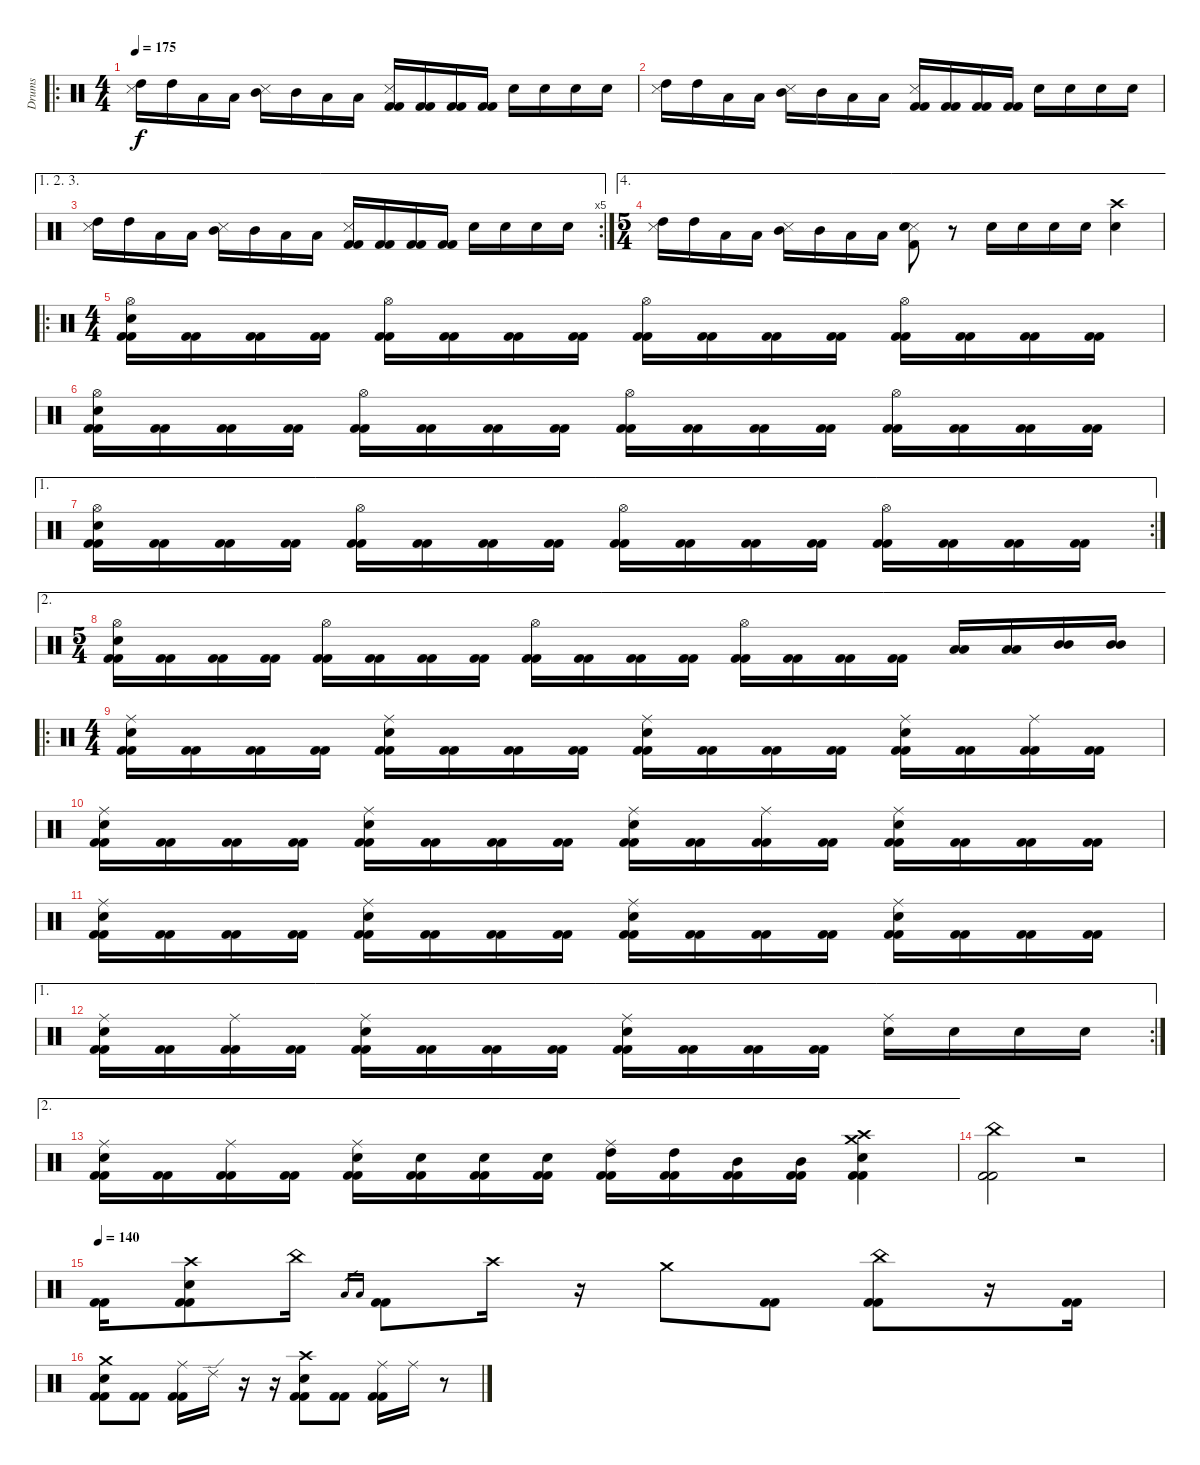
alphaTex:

\track ("Drums " "Drums ") {instrument percussion}
\staff {score}
\articulation defaults
\ro
\ts (4 4)
\tempo 175
\clef neutral
\ks c
("Metronome (hit)" "High Tom (hit)").16{dy f} "High Tom (hit)".16 "Low Tom (hit)".16 "Low Tom (hit)".16 ("Metronome (hit)" "Mid Tom (hit)").16 "Mid Tom (hit)".16 "Low Tom (hit)".16 "Low Tom (hit)".16 ("Metronome (hit)" "Kick (hit) 2" "Kick (hit) 2").16 ("Kick (hit) 2" "Kick (hit) 2").16 ("Kick (hit) 2" "Kick (hit) 2").16 ("Kick (hit) 2" "Kick (hit) 2").16 "Electric Snare (hit)".16 "Electric Snare (hit)".16 "Electric Snare (hit)".16 "Electric Snare (hit)".16 |
("Metronome (hit)" "High Tom (hit)").16 "High Tom (hit)".16 "Low Tom (hit)".16 "Low Tom (hit)".16 ("Metronome (hit)" "Mid Tom (hit)").16 "Mid Tom (hit)".16 "Low Tom (hit)".16 "Low Tom (hit)".16 ("Metronome (hit)" "Kick (hit) 2" "Kick (hit) 2").16 ("Kick (hit) 2" "Kick (hit) 2").16 ("Kick (hit) 2" "Kick (hit) 2").16 ("Kick (hit) 2" "Kick (hit) 2").16 "Electric Snare (hit)".16 "Electric Snare (hit)".16 "Electric Snare (hit)".16 "Electric Snare (hit)".16 |
\ae (1 2 3)
\rc 5
("Metronome (hit)" "High Tom (hit)").16 "High Tom (hit)".16 "Low Tom (hit)".16 "Low Tom (hit)".16 ("Metronome (hit)" "Mid Tom (hit)").16 "Mid Tom (hit)".16 "Low Tom (hit)".16 "Low Tom (hit)".16 ("Metronome (hit)" "Kick (hit) 2" "Kick (hit) 2").16 ("Kick (hit) 2" "Kick (hit) 2").16 ("Kick (hit) 2" "Kick (hit) 2").16 ("Kick (hit) 2" "Kick (hit) 2").16 "Electric Snare (hit)".16 "Electric Snare (hit)".16 "Electric Snare (hit)".16 "Electric Snare (hit)".16 |
\ae 4
\ts (5 4)
("Metronome (hit)" "High Tom (hit)").16 "High Tom (hit)".16 "Low Tom (hit)".16 "Low Tom (hit)".16 ("Metronome (hit)" "Mid Tom (hit)").16 "Mid Tom (hit)".16 "Low Tom (hit)".16 "Low Tom (hit)".16 ("Metronome (hit)" "Electric Snare (hit)" "Kick (hit) 2").8 r.8 "Electric Snare (hit)".16 "Electric Snare (hit)".16 "Electric Snare (hit)".16 "Electric Snare (hit)".16 ("Crash high (hit)" "Electric Snare (hit)").4 |
\ro
\ts (4 4)
("Hi-Hat (open)" "Electric Snare (hit)" "Kick (hit) 2" "Kick (hit) 2").16 ("Kick (hit) 2" "Kick (hit) 2").16 ("Kick (hit) 2" "Kick (hit) 2").16 ("Kick (hit) 2" "Kick (hit) 2").16 ("Hi-Hat (open)" "Kick (hit) 2" "Kick (hit) 2").16 ("Kick (hit) 2" "Kick (hit) 2").16 ("Kick (hit) 2" "Kick (hit) 2").16 ("Kick (hit) 2" "Kick (hit) 2").16 ("Hi-Hat (open)" "Kick (hit) 2" "Kick (hit) 2").16 ("Kick (hit) 2" "Kick (hit) 2").16 ("Kick (hit) 2" "Kick (hit) 2").16 ("Kick (hit) 2" "Kick (hit) 2").16 ("Hi-Hat (open)" "Kick (hit) 2" "Kick (hit) 2").16 ("Kick (hit) 2" "Kick (hit) 2").16 ("Kick (hit) 2" "Kick (hit) 2").16 ("Kick (hit) 2" "Kick (hit) 2").16 |
("Hi-Hat (open)" "Electric Snare (hit)" "Kick (hit) 2" "Kick (hit) 2").16 ("Kick (hit) 2" "Kick (hit) 2").16 ("Kick (hit) 2" "Kick (hit) 2").16 ("Kick (hit) 2" "Kick (hit) 2").16 ("Hi-Hat (open)" "Kick (hit) 2" "Kick (hit) 2").16 ("Kick (hit) 2" "Kick (hit) 2").16 ("Kick (hit) 2" "Kick (hit) 2").16 ("Kick (hit) 2" "Kick (hit) 2").16 ("Hi-Hat (open)" "Kick (hit) 2" "Kick (hit) 2").16 ("Kick (hit) 2" "Kick (hit) 2").16 ("Kick (hit) 2" "Kick (hit) 2").16 ("Kick (hit) 2" "Kick (hit) 2").16 ("Hi-Hat (open)" "Kick (hit) 2" "Kick (hit) 2").16 ("Kick (hit) 2" "Kick (hit) 2").16 ("Kick (hit) 2" "Kick (hit) 2").16 ("Kick (hit) 2" "Kick (hit) 2").16 |
\ae 1
\rc 2
("Hi-Hat (open)" "Electric Snare (hit)" "Kick (hit) 2" "Kick (hit) 2").16 ("Kick (hit) 2" "Kick (hit) 2").16 ("Kick (hit) 2" "Kick (hit) 2").16 ("Kick (hit) 2" "Kick (hit) 2").16 ("Hi-Hat (open)" "Kick (hit) 2" "Kick (hit) 2").16 ("Kick (hit) 2" "Kick (hit) 2").16 ("Kick (hit) 2" "Kick (hit) 2").16 ("Kick (hit) 2" "Kick (hit) 2").16 ("Hi-Hat (open)" "Kick (hit) 2" "Kick (hit) 2").16 ("Kick (hit) 2" "Kick (hit) 2").16 ("Kick (hit) 2" "Kick (hit) 2").16 ("Kick (hit) 2" "Kick (hit) 2").16 ("Hi-Hat (open)" "Kick (hit) 2" "Kick (hit) 2").16 ("Kick (hit) 2" "Kick (hit) 2").16 ("Kick (hit) 2" "Kick (hit) 2").16 ("Kick (hit) 2" "Kick (hit) 2").16 |
\ae 2
\ts (5 4)
("Hi-Hat (open)" "Electric Snare (hit)" "Kick (hit) 2" "Kick (hit) 2").16 ("Kick (hit) 2" "Kick (hit) 2").16 ("Kick (hit) 2" "Kick (hit) 2").16 ("Kick (hit) 2" "Kick (hit) 2").16 ("Hi-Hat (open)" "Kick (hit) 2" "Kick (hit) 2").16 ("Kick (hit) 2" "Kick (hit) 2").16 ("Kick (hit) 2" "Kick (hit) 2").16 ("Kick (hit) 2" "Kick (hit) 2").16 ("Hi-Hat (open)" "Kick (hit) 2" "Kick (hit) 2").16 ("Kick (hit) 2" "Kick (hit) 2").16 ("Kick (hit) 2" "Kick (hit) 2").16 ("Kick (hit) 2" "Kick (hit) 2").16 ("Hi-Hat (open)" "Kick (hit) 2" "Kick (hit) 2").16 ("Kick (hit) 2" "Kick (hit) 2").16 ("Kick (hit) 2" "Kick (hit) 2").16 ("Kick (hit) 2" "Kick (hit) 2").16 ("Low Tom (hit)" "Low Tom (hit)").16 ("Low Tom (hit)" "Low Tom (hit)").16 ("Mid Tom (hit)" "Mid Tom (hit)").16 ("Mid Tom (hit)" "Mid Tom (hit)").16 |
\ro
\ts (4 4)
("Ride (middle)" "Electric Snare (hit)" "Kick (hit) 2" "Kick (hit) 2").16 ("Kick (hit) 2" "Kick (hit) 2").16 ("Kick (hit) 2" "Kick (hit) 2").16 ("Kick (hit) 2" "Kick (hit) 2").16 ("Ride (middle)" "Electric Snare (hit)" "Kick (hit) 2" "Kick (hit) 2").16 ("Kick (hit) 2" "Kick (hit) 2").16 ("Kick (hit) 2" "Kick (hit) 2").16 ("Kick (hit) 2" "Kick (hit) 2").16 ("Ride (middle)" "Electric Snare (hit)" "Kick (hit) 2" "Kick (hit) 2").16 ("Kick (hit) 2" "Kick (hit) 2").16 ("Kick (hit) 2" "Kick (hit) 2").16 ("Kick (hit) 2" "Kick (hit) 2").16 ("Ride (middle)" "Electric Snare (hit)" "Kick (hit) 2" "Kick (hit) 2").16 ("Kick (hit) 2" "Kick (hit) 2").16 ("Ride (middle)" "Kick (hit) 2" "Kick (hit) 2").16 ("Kick (hit) 2" "Kick (hit) 2").16 |
("Ride (middle)" "Electric Snare (hit)" "Kick (hit) 2" "Kick (hit) 2").16 ("Kick (hit) 2" "Kick (hit) 2").16 ("Kick (hit) 2" "Kick (hit) 2").16 ("Kick (hit) 2" "Kick (hit) 2").16 ("Ride (middle)" "Electric Snare (hit)" "Kick (hit) 2" "Kick (hit) 2").16 ("Kick (hit) 2" "Kick (hit) 2").16 ("Kick (hit) 2" "Kick (hit) 2").16 ("Kick (hit) 2" "Kick (hit) 2").16 ("Ride (middle)" "Electric Snare (hit)" "Kick (hit) 2" "Kick (hit) 2").16 ("Kick (hit) 2" "Kick (hit) 2").16 ("Ride (middle)" "Kick (hit) 2" "Kick (hit) 2").16 ("Kick (hit) 2" "Kick (hit) 2").16 ("Ride (middle)" "Electric Snare (hit)" "Kick (hit) 2" "Kick (hit) 2").16 ("Kick (hit) 2" "Kick (hit) 2").16 ("Kick (hit) 2" "Kick (hit) 2").16 ("Kick (hit) 2" "Kick (hit) 2").16 |
("Ride (middle)" "Electric Snare (hit)" "Kick (hit) 2" "Kick (hit) 2").16 ("Kick (hit) 2" "Kick (hit) 2").16 ("Kick (hit) 2" "Kick (hit) 2").16 ("Kick (hit) 2" "Kick (hit) 2").16 ("Ride (middle)" "Electric Snare (hit)" "Kick (hit) 2" "Kick (hit) 2").16 ("Kick (hit) 2" "Kick (hit) 2").16 ("Kick (hit) 2" "Kick (hit) 2").16 ("Kick (hit) 2" "Kick (hit) 2").16 ("Ride (middle)" "Electric Snare (hit)" "Kick (hit) 2" "Kick (hit) 2").16 ("Kick (hit) 2" "Kick (hit) 2").16 ("Kick (hit) 2" "Kick (hit) 2").16 ("Kick (hit) 2" "Kick (hit) 2").16 ("Ride (middle)" "Electric Snare (hit)" "Kick (hit) 2" "Kick (hit) 2").16 ("Kick (hit) 2" "Kick (hit) 2").16 ("Kick (hit) 2" "Kick (hit) 2").16 ("Kick (hit) 2" "Kick (hit) 2").16 |
\ae 1
\rc 2
("Ride (middle)" "Electric Snare (hit)" "Kick (hit) 2" "Kick (hit) 2").16 ("Kick (hit) 2" "Kick (hit) 2").16 ("Ride (middle)" "Kick (hit) 2" "Kick (hit) 2").16 ("Kick (hit) 2" "Kick (hit) 2").16 ("Ride (middle)" "Electric Snare (hit)" "Kick (hit) 2" "Kick (hit) 2").16 ("Kick (hit) 2" "Kick (hit) 2").16 ("Kick (hit) 2" "Kick (hit) 2").16 ("Kick (hit) 2" "Kick (hit) 2").16 ("Ride (middle)" "Electric Snare (hit)" "Kick (hit) 2" "Kick (hit) 2").16 ("Kick (hit) 2" "Kick (hit) 2").16 ("Kick (hit) 2" "Kick (hit) 2").16 ("Kick (hit) 2" "Kick (hit) 2").16 ("Ride (middle)" "Electric Snare (hit)").16 "Electric Snare (hit)".16 "Electric Snare (hit)".16 "Electric Snare (hit)".16 |
\ae 2
("Ride (middle)" "Electric Snare (hit)" "Kick (hit) 2" "Kick (hit) 2").16 ("Kick (hit) 2" "Kick (hit) 2").16 ("Ride (middle)" "Kick (hit) 2" "Kick (hit) 2").16 ("Kick (hit) 2" "Kick (hit) 2").16 ("Ride (middle)" "Electric Snare (hit)" "Kick (hit) 2" "Kick (hit) 2").16 ("Electric Snare (hit)" "Kick (hit) 2" "Kick (hit) 2").16 ("Electric Snare (hit)" "Kick (hit) 2" "Kick (hit) 2").16 ("Electric Snare (hit)" "Kick (hit) 2" "Kick (hit) 2").16 ("Ride (middle)" "High Tom (hit)" "Kick (hit) 2" "Kick (hit) 2").16 ("High Tom (hit)" "Kick (hit) 2" "Kick (hit) 2").16 ("Mid Tom (hit)" "Kick (hit) 2" "Kick (hit) 2").16 ("Mid Tom (hit)" "Kick (hit) 2" "Kick (hit) 2").16 ("Crash medium (hit)" "Crash high (hit)" "Electric Snare (hit)" "Kick (hit) 2" "Kick (hit) 2").4 |
("China (hit)" "Kick (hit) 2" "Kick (hit) 2").2 r.2 |
\tempo 140
("Kick (hit) 2" "Kick (hit) 2").16{balance 8} ("Crash high (hit)" "Electric Snare (hit)" "Kick (hit) 2" "Kick (hit) 2").8 "China (hit)".16 "Low Tom (hit)".16{gr} "Low Tom (hit)".16{gr} ("Kick (hit) 2" "Kick (hit) 2").8 "Crash high (hit)".16 r.16 "Crash medium (hit)".8 ("Kick (hit) 2" "Kick (hit) 2").8 ("China (hit)" "Kick (hit) 2" "Kick (hit) 2").8 r.16 ("Kick (hit) 2" "Kick (hit) 2").16 |
("Crash medium (hit)" "Electric Snare (hit)" "Kick (hit) 2" "Kick (hit) 2").8 ("Kick (hit) 2" "Kick (hit) 2").8 ("Ride (middle)" "Kick (hit) 2" "Kick (hit) 2").16 "Ride (edge) 2".16 r.16 r.16 ("Crash high (hit)" "Electric Snare (hit)" "Kick (hit) 2" "Kick (hit) 2").8 ("Kick (hit) 2" "Kick (hit) 2").8 ("Ride (middle)" "Kick (hit) 2" "Kick (hit) 2").16 "Ride (middle)".16 r.8
